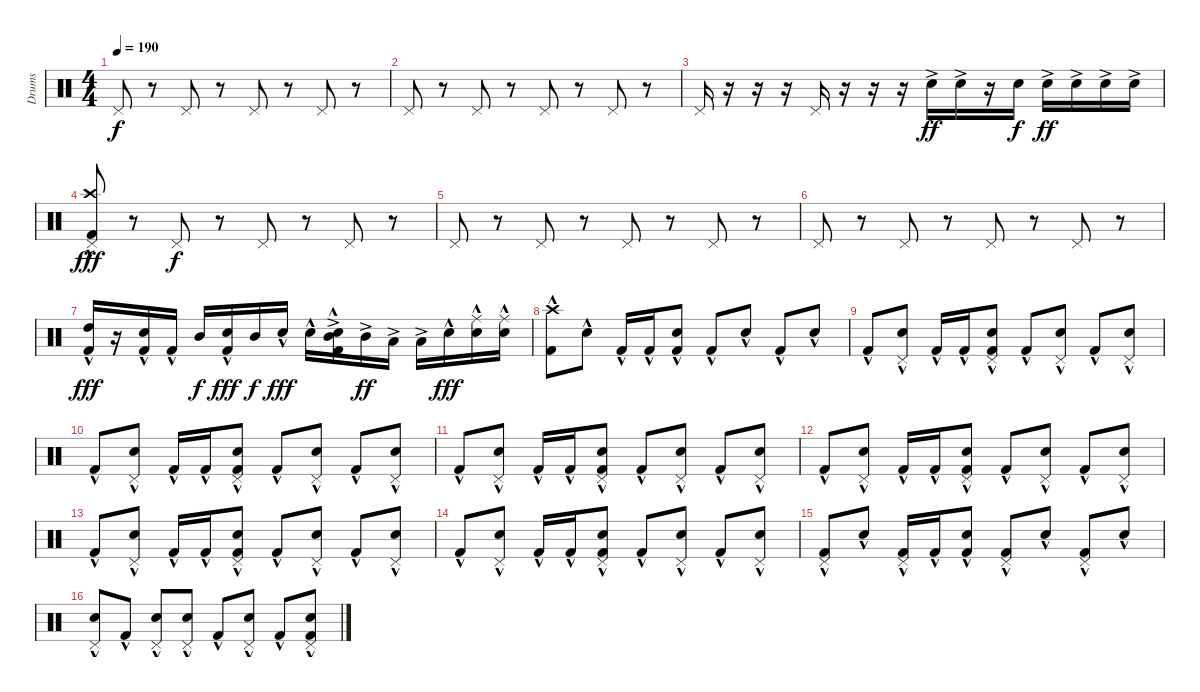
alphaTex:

\track ("Drums" "Drums") {instrument percussion}
\staff {score}
\articulation defaults
\ts (4 4)
\tempo 190
\clef neutral
\ks c "Pedal Hi-Hat (hit)".8{dy f}
r.8 "Pedal Hi-Hat (hit)".8 r.8 "Pedal Hi-Hat (hit)".8 r.8 "Pedal Hi-Hat (hit)".8 r.8 |
"Pedal Hi-Hat (hit)".8 r.8 "Pedal Hi-Hat (hit)".8 r.8 "Pedal Hi-Hat (hit)".8 r.8 "Pedal Hi-Hat (hit)".8 r.8 |
"Pedal Hi-Hat (hit)".16 r.16 r.16 r.16 "Pedal Hi-Hat (hit)".16 r.16 r.16 r.16 "Snare (hit) 2"{ac}.16{dy ff} "Snare (hit) 2"{ac}.16 r.16 "Snare (hit) 2".16{dy f} "Snare (hit) 2"{ac}.16{dy ff} "Snare (hit) 2"{ac}.16 "Snare (hit) 2"{ac}.16 "Snare (hit) 2"{ac}.16 |
("Pedal Hi-Hat (hit)"{hac} "Crash high (hit)"{hac} "Kick (hit) 2"{hac}).8{dy fff} r.8 "Pedal Hi-Hat (hit)".8{dy f} r.8 "Pedal Hi-Hat (hit)".8 r.8 "Pedal Hi-Hat (hit)".8 r.8 |
"Pedal Hi-Hat (hit)".8 r.8 "Pedal Hi-Hat (hit)".8 r.8 "Pedal Hi-Hat (hit)".8 r.8 "Pedal Hi-Hat (hit)".8 r.8 |
"Pedal Hi-Hat (hit)".8 r.8 "Pedal Hi-Hat (hit)".8 r.8 "Pedal Hi-Hat (hit)".8 r.8 "Pedal Hi-Hat (hit)".8 r.8 |
("High Tom (hit)"{hac} "Kick (hit) 2"{hac}).16{dy fff} r.16 ("Snare (hit) 2"{hac} "Kick (hit) 2"{hac}).16 "Kick (hit) 2"{hac}.16 "Mid Tom (hit)".16{dy f} ("Snare (hit) 2"{hac} "Kick (hit) 2"{hac}).16{dy fff} "Mid Tom (hit)".16{dy f} "Snare (hit) 2"{hac}.16{dy fff} "Snare (hit) 2"{hac}.16 ("Mid Tom (hit)"{ac} "Snare (hit) 2"{hac} "Kick (hit) 2"{hac}).16 "Mid Tom (hit)"{ac}.16{dy ff} "Low Tom (hit)"{ac}.16 "Low Tom (hit)"{ac}.16 "Snare (hit) 2"{hac}.16{dy fff} ("Ride (middle)" "Snare (hit) 2"{hac}).16 ("Ride (middle)" "Snare (hit) 2"{hac}).16 |
("Crash high (hit)" "Kick (hit) 2"{hac}).8 "Snare (hit) 2"{hac}.8 "Kick (hit) 2"{hac}.16 "Kick (hit) 2"{hac}.16 ("Snare (hit) 2"{hac} "Kick (hit) 2"{hac}).8 "Kick (hit) 2"{hac}.8 "Snare (hit) 2"{hac}.8 "Kick (hit) 2"{hac}.8 "Snare (hit) 2"{hac}.8 |
"Kick (hit) 2"{hac}.8 ("Pedal Hi-Hat (hit)" "Snare (hit) 2"{hac}).8 "Kick (hit) 2"{hac}.16 "Kick (hit) 2"{hac}.16 ("Pedal Hi-Hat (hit)" "Snare (hit) 2"{hac} "Kick (hit) 2"{hac}).8 "Kick (hit) 2"{hac}.8 ("Pedal Hi-Hat (hit)" "Snare (hit) 2"{hac}).8 "Kick (hit) 2"{hac}.8 ("Pedal Hi-Hat (hit)" "Snare (hit) 2"{hac}).8 |
"Kick (hit) 2"{hac}.8 ("Pedal Hi-Hat (hit)" "Snare (hit) 2"{hac}).8 "Kick (hit) 2"{hac}.16 "Kick (hit) 2"{hac}.16 ("Pedal Hi-Hat (hit)" "Snare (hit) 2" "Kick (hit) 2"{hac}).8 "Kick (hit) 2"{hac}.8 ("Pedal Hi-Hat (hit)" "Snare (hit) 2"{hac}).8 "Kick (hit) 2"{hac}.8 ("Pedal Hi-Hat (hit)" "Snare (hit) 2"{hac}).8 |
"Kick (hit) 2"{hac}.8 ("Pedal Hi-Hat (hit)" "Snare (hit) 2"{hac}).8 "Kick (hit) 2"{hac}.16 "Kick (hit) 2"{hac}.16 ("Pedal Hi-Hat (hit)" "Snare (hit) 2" "Kick (hit) 2"{hac}).8 "Kick (hit) 2"{hac}.8 ("Pedal Hi-Hat (hit)" "Snare (hit) 2"{hac}).8 "Kick (hit) 2"{hac}.8 ("Pedal Hi-Hat (hit)" "Snare (hit) 2"{hac}).8 |
"Kick (hit) 2"{hac}.8 ("Pedal Hi-Hat (hit)" "Snare (hit) 2"{hac}).8 "Kick (hit) 2"{hac}.16 "Kick (hit) 2"{hac}.16 ("Pedal Hi-Hat (hit)" "Snare (hit) 2"{hac} "Kick (hit) 2"{hac}).8 "Kick (hit) 2"{hac}.8 ("Pedal Hi-Hat (hit)" "Snare (hit) 2"{hac}).8 "Kick (hit) 2"{hac}.8 ("Pedal Hi-Hat (hit)" "Snare (hit) 2"{hac}).8 |
"Kick (hit) 2"{hac}.8 ("Pedal Hi-Hat (hit)" "Snare (hit) 2"{hac}).8 "Kick (hit) 2"{hac}.16 "Kick (hit) 2"{hac}.16 ("Pedal Hi-Hat (hit)" "Snare (hit) 2"{hac} "Kick (hit) 2"{hac}).8 "Kick (hit) 2"{hac}.8 ("Pedal Hi-Hat (hit)" "Snare (hit) 2"{hac}).8 "Kick (hit) 2"{hac}.8 ("Pedal Hi-Hat (hit)" "Snare (hit) 2"{hac}).8 |
"Kick (hit) 2"{hac}.8 ("Pedal Hi-Hat (hit)" "Snare (hit) 2"{hac}).8 "Kick (hit) 2"{hac}.16 "Kick (hit) 2"{hac}.16 ("Pedal Hi-Hat (hit)" "Snare (hit) 2" "Kick (hit) 2"{hac}).8 "Kick (hit) 2"{hac}.8 ("Pedal Hi-Hat (hit)" "Snare (hit) 2"{hac}).8 "Kick (hit) 2"{hac}.8 ("Pedal Hi-Hat (hit)" "Snare (hit) 2"{hac}).8 |
("Pedal Hi-Hat (hit)" "Kick (hit) 2"{hac}).8 "Snare (hit) 2"{hac}.8 ("Pedal Hi-Hat (hit)" "Kick (hit) 2"{hac}).16 "Kick (hit) 2"{hac}.16 ("Snare (hit) 2" "Kick (hit) 2"{hac}).8 ("Pedal Hi-Hat (hit)" "Kick (hit) 2"{hac}).8 "Snare (hit) 2"{hac}.8 ("Pedal Hi-Hat (hit)" "Kick (hit) 2"{hac}).8 "Snare (hit) 2"{hac}.8 |
("Snare (hit) 2"{hac} "Pedal Hi-Hat (hit)").8 "Kick (hit) 2"{hac}.8 ("Snare (hit) 2"{hac} "Pedal Hi-Hat (hit)").8 ("Snare (hit) 2"{hac} "Pedal Hi-Hat (hit)").8 "Kick (hit) 2"{hac}.8 ("Snare (hit) 2"{hac} "Pedal Hi-Hat (hit)").8 "Kick (hit) 2"{hac}.8 ("Snare (hit) 2"{hac} "Pedal Hi-Hat (hit)" "Kick (hit) 2"{hac}).8
